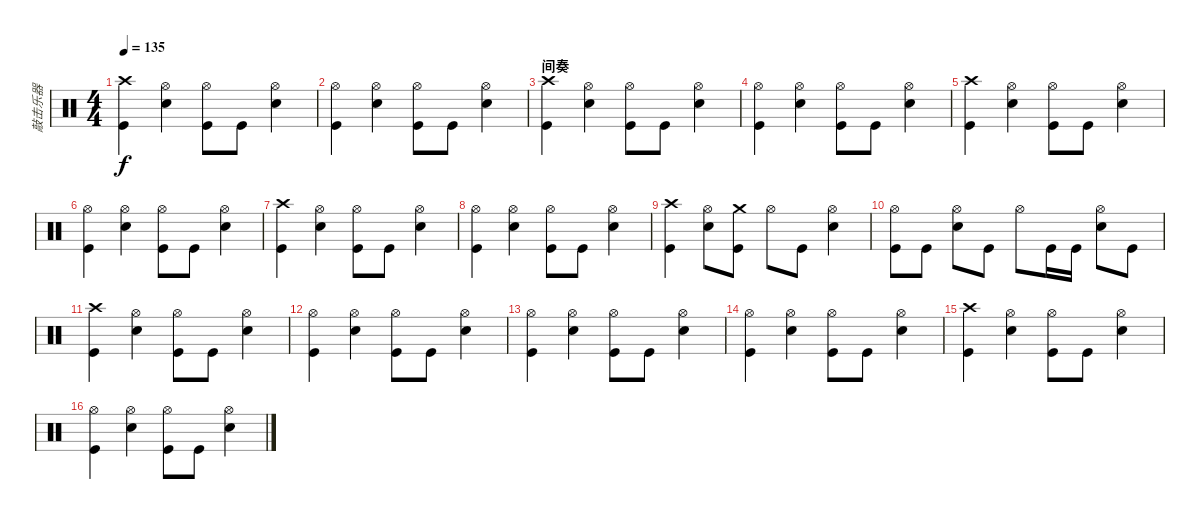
\track ("敲击乐器" "敲击乐器") {instrument percussion}
\staff {score}
\articulation defaults
\ts (4 4)
\tempo 135
\clef neutral
\ks c
("Crash high (hit)" "Kick (hit)").4{dy f} ("Hi-Hat (open)" "Electric Snare (hit)").4 ("Hi-Hat (open)" "Kick (hit)").8 "Kick (hit)".8 ("Hi-Hat (open)" "Electric Snare (hit)").4 |
("Hi-Hat (open)" "Kick (hit)").4 ("Hi-Hat (open)" "Electric Snare (hit)").4 ("Hi-Hat (open)" "Kick (hit)").8 "Kick (hit)".8 ("Hi-Hat (open)" "Electric Snare (hit)").4 |
\section ("" "间奏")
("Crash high (hit)" "Kick (hit)").4 ("Hi-Hat (open)" "Electric Snare (hit)").4 ("Hi-Hat (open)" "Kick (hit)").8 "Kick (hit)".8 ("Hi-Hat (open)" "Electric Snare (hit)").4 |
("Hi-Hat (open)" "Kick (hit)").4 ("Hi-Hat (open)" "Electric Snare (hit)").4 ("Hi-Hat (open)" "Kick (hit)").8 "Kick (hit)".8 ("Hi-Hat (open)" "Electric Snare (hit)").4 |
("Crash high (hit)" "Kick (hit)").4 ("Hi-Hat (open)" "Electric Snare (hit)").4 ("Hi-Hat (open)" "Kick (hit)").8 "Kick (hit)".8 ("Hi-Hat (open)" "Electric Snare (hit)").4 |
("Hi-Hat (open)" "Kick (hit)").4 ("Hi-Hat (open)" "Electric Snare (hit)").4 ("Hi-Hat (open)" "Kick (hit)").8 "Kick (hit)".8 ("Hi-Hat (open)" "Electric Snare (hit)").4 |
("Crash high (hit)" "Kick (hit)").4 ("Hi-Hat (open)" "Electric Snare (hit)").4 ("Hi-Hat (open)" "Kick (hit)").8 "Kick (hit)".8 ("Hi-Hat (open)" "Electric Snare (hit)").4 |
("Hi-Hat (open)" "Kick (hit)").4 ("Hi-Hat (open)" "Electric Snare (hit)").4 ("Hi-Hat (open)" "Kick (hit)").8 "Kick (hit)".8 ("Hi-Hat (open)" "Electric Snare (hit)").4 |
("Crash high (hit)" "Kick (hit)").4 ("Hi-Hat (open)" "Electric Snare (hit)").8 ("Crash medium (hit)" "Kick (hit)").8 "Hi-Hat (open)".8 "Kick (hit)".8 ("Hi-Hat (open)" "Electric Snare (hit)").4 |
("Hi-Hat (open)" "Kick (hit)").8 "Kick (hit)".8 ("Hi-Hat (open)" "Electric Snare (hit)").8 "Kick (hit)".8 "Hi-Hat (open)".8 "Kick (hit)".16 "Kick (hit)".16 ("Hi-Hat (open)" "Electric Snare (hit)").8 "Kick (hit)".8 |
("Crash high (hit)" "Kick (hit)").4 ("Hi-Hat (open)" "Electric Snare (hit)").4 ("Hi-Hat (open)" "Kick (hit)").8 "Kick (hit)".8 ("Hi-Hat (open)" "Electric Snare (hit)").4 |
("Hi-Hat (open)" "Kick (hit)").4 ("Hi-Hat (open)" "Electric Snare (hit)").4 ("Hi-Hat (open)" "Kick (hit)").8 "Kick (hit)".8 ("Hi-Hat (open)" "Electric Snare (hit)").4 |
("Hi-Hat (open)" "Kick (hit)").4 ("Hi-Hat (open)" "Electric Snare (hit)").4 ("Hi-Hat (open)" "Kick (hit)").8 "Kick (hit)".8 ("Hi-Hat (open)" "Electric Snare (hit)").4 |
("Hi-Hat (open)" "Kick (hit)").4 ("Hi-Hat (open)" "Electric Snare (hit)").4 ("Hi-Hat (open)" "Kick (hit)").8 "Kick (hit)".8 ("Hi-Hat (open)" "Electric Snare (hit)").4 |
("Crash high (hit)" "Kick (hit)").4 ("Hi-Hat (open)" "Electric Snare (hit)").4 ("Hi-Hat (open)" "Kick (hit)").8 "Kick (hit)".8 ("Hi-Hat (open)" "Electric Snare (hit)").4 |
("Hi-Hat (open)" "Kick (hit)").4 ("Hi-Hat (open)" "Electric Snare (hit)").4 ("Hi-Hat (open)" "Kick (hit)").8 "Kick (hit)".8 ("Hi-Hat (open)" "Electric Snare (hit)").4
